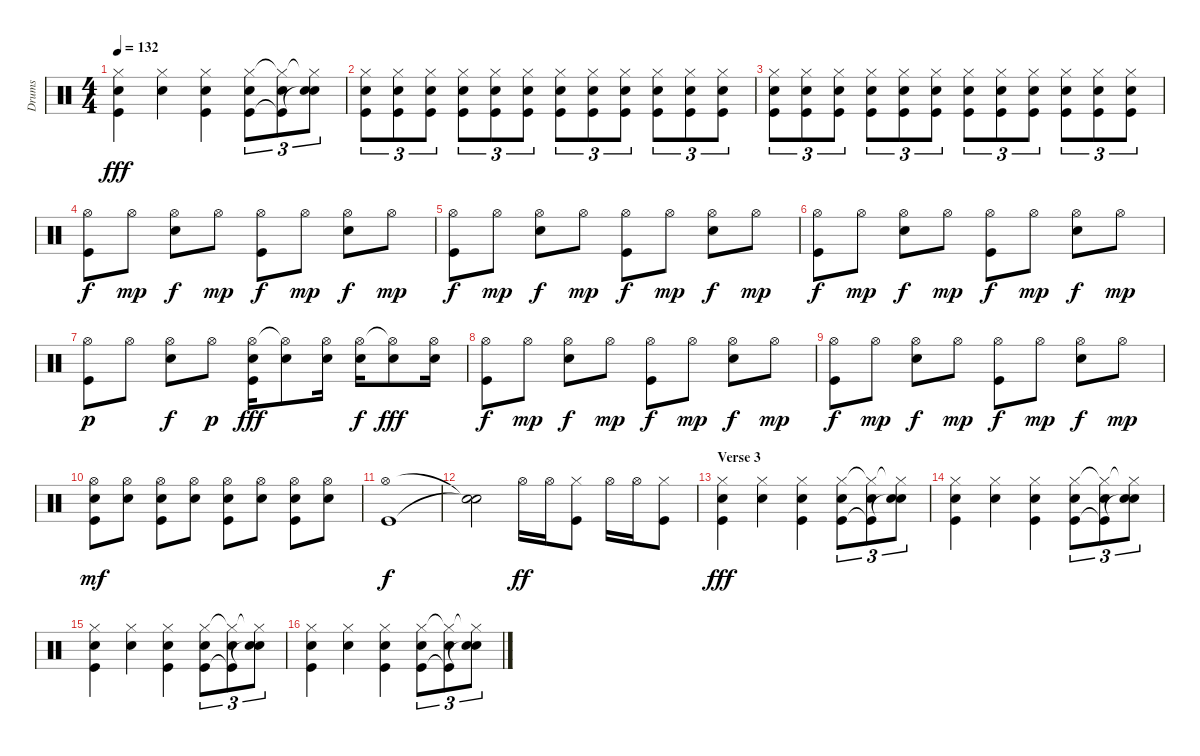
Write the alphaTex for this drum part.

\track ("Drums" "Drums") {instrument percussion}
\staff {score}
\articulation defaults
\ts (4 4)
\tempo 132
\clef neutral
\ks c
("Hi-Hat (closed)" "Snare (hit) 2" "Kick (hit)").4{dy fff} ("Hi-Hat (closed)" "Snare (hit) 2").4 ("Hi-Hat (closed)" "Snare (hit) 2" "Kick (hit)").4 ("Hi-Hat (closed)" "Snare (hit) 2" "Kick (hit)").8{tu (3 2)} ("Hi-Hat (closed)"{t} "Snare (hit) 2" "Kick (hit)"{t}).8{tu (3 2)} ("Hi-Hat (closed)"{t} "Snare (hit) 2" "Snare (hit)"{t}).8{tu (3 2)} |
("Hi-Hat (closed)" "Snare (hit) 2" "Kick (hit)").8{tu (3 2)} ("Hi-Hat (closed)" "Snare (hit) 2" "Kick (hit)").8{tu (3 2)} ("Hi-Hat (closed)" "Snare (hit) 2" "Kick (hit)").8{tu (3 2)} ("Hi-Hat (closed)" "Snare (hit) 2" "Kick (hit)").8{tu (3 2)} ("Hi-Hat (closed)" "Snare (hit) 2" "Kick (hit)").8{tu (3 2)} ("Hi-Hat (closed)" "Snare (hit) 2" "Kick (hit)").8{tu (3 2)} ("Hi-Hat (closed)" "Snare (hit) 2" "Kick (hit)").8{tu (3 2)} ("Hi-Hat (closed)" "Snare (hit) 2" "Kick (hit)").8{tu (3 2)} ("Hi-Hat (closed)" "Snare (hit) 2" "Kick (hit)").8{tu (3 2)} ("Hi-Hat (closed)" "Snare (hit) 2" "Kick (hit)").8{tu (3 2)} ("Hi-Hat (closed)" "Snare (hit) 2" "Kick (hit)").8{tu (3 2)} ("Hi-Hat (closed)" "Snare (hit) 2" "Kick (hit)").8{tu (3 2)} |
("Hi-Hat (closed)" "Snare (hit) 2" "Kick (hit)").8{tu (3 2)} ("Hi-Hat (closed)" "Snare (hit) 2" "Kick (hit)").8{tu (3 2)} ("Hi-Hat (closed)" "Snare (hit) 2" "Kick (hit)").8{tu (3 2)} ("Hi-Hat (closed)" "Snare (hit) 2" "Kick (hit)").8{tu (3 2)} ("Hi-Hat (closed)" "Snare (hit) 2" "Kick (hit)").8{tu (3 2)} ("Hi-Hat (closed)" "Snare (hit) 2" "Kick (hit)").8{tu (3 2)} ("Hi-Hat (closed)" "Snare (hit) 2" "Kick (hit)").8{tu (3 2)} ("Hi-Hat (closed)" "Snare (hit) 2" "Kick (hit)").8{tu (3 2)} ("Hi-Hat (closed)" "Snare (hit) 2" "Kick (hit)").8{tu (3 2)} ("Hi-Hat (closed)" "Snare (hit) 2" "Kick (hit)").8{tu (3 2)} ("Hi-Hat (closed)" "Snare (hit) 2" "Kick (hit)").8{tu (3 2)} ("Hi-Hat (closed)" "Snare (hit) 2" "Kick (hit)").8{tu (3 2)} |
("Hi-Hat (open)" "Kick (hit)").8{dy f} "Hi-Hat (open)".8{dy mp} ("Hi-Hat (open)" "Snare (hit) 2").8{dy f} "Hi-Hat (open)".8{dy mp} ("Hi-Hat (open)" "Kick (hit)").8{dy f} "Hi-Hat (open)".8{dy mp} ("Hi-Hat (open)" "Snare (hit) 2").8{dy f} "Hi-Hat (open)".8{dy mp} |
("Hi-Hat (open)" "Kick (hit)").8{dy f} "Hi-Hat (open)".8{dy mp} ("Hi-Hat (open)" "Snare (hit) 2").8{dy f} "Hi-Hat (open)".8{dy mp} ("Hi-Hat (open)" "Kick (hit)").8{dy f} "Hi-Hat (open)".8{dy mp} ("Hi-Hat (open)" "Snare (hit) 2").8{dy f} "Hi-Hat (open)".8{dy mp} |
("Hi-Hat (open)" "Kick (hit)").8{dy f} "Hi-Hat (open)".8{dy mp} ("Hi-Hat (open)" "Snare (hit) 2").8{dy f} "Hi-Hat (open)".8{dy mp} ("Hi-Hat (open)" "Kick (hit)").8{dy f} "Hi-Hat (open)".8{dy mp} ("Hi-Hat (open)" "Snare (hit) 2").8{dy f} "Hi-Hat (open)".8{dy mp} |
("Hi-Hat (open)" "Kick (hit)").8{dy p} "Hi-Hat (open)".8 ("Hi-Hat (open)" "Snare (hit) 2").8{dy f} "Hi-Hat (open)".8{dy p} ("Hi-Hat (open)" "Snare (hit) 2" "Kick (hit)").16{dy fff} ("Hi-Hat (open)"{t} "Snare (hit) 2").8 ("Hi-Hat (open)" "Snare (hit) 2").16 ("Hi-Hat (open)" "Snare (hit) 2").16{dy f} ("Hi-Hat (open)"{t} "Snare (hit) 2").8{dy fff} ("Hi-Hat (open)" "Snare (hit) 2").16 |
("Hi-Hat (open)" "Kick (hit)").8{dy f} "Hi-Hat (open)".8{dy mp} ("Hi-Hat (open)" "Snare (hit) 2").8{dy f} "Hi-Hat (open)".8{dy mp} ("Hi-Hat (open)" "Kick (hit)").8{dy f} "Hi-Hat (open)".8{dy mp} ("Hi-Hat (open)" "Snare (hit) 2").8{dy f} "Hi-Hat (open)".8{dy mp} |
("Hi-Hat (open)" "Kick (hit)").8{dy f} "Hi-Hat (open)".8{dy mp} ("Hi-Hat (open)" "Snare (hit) 2").8{dy f} "Hi-Hat (open)".8{dy mp} ("Hi-Hat (open)" "Kick (hit)").8{dy f} "Hi-Hat (open)".8{dy mp} ("Hi-Hat (open)" "Snare (hit) 2").8{dy f} "Hi-Hat (open)".8{dy mp} |
("Hi-Hat (open)" "Snare (hit) 2" "Kick (hit)").8{dy mf} ("Hi-Hat (open)" "Snare (hit) 2").8 ("Hi-Hat (open)" "Snare (hit) 2" "Kick (hit)").8 ("Hi-Hat (open)" "Snare (hit) 2").8 ("Hi-Hat (open)" "Snare (hit) 2" "Kick (hit)").8 ("Hi-Hat (open)" "Snare (hit) 2").8 ("Hi-Hat (open)" "Snare (hit) 2" "Kick (hit)").8 ("Hi-Hat (open)" "Snare (hit) 2").8 |
("Hi-Hat (open)" "Kick (hit)").1{dy f} |
("Snare (hit)"{t} "Snare (hit)"{t}).2 "Hi-Hat (open)".16{dy ff} "Hi-Hat (open)".16 ("Hi-Hat (closed)" "Kick (hit)").8 "Hi-Hat (open)".16 "Hi-Hat (open)".16 ("Hi-Hat (closed)" "Kick (hit)").8 |
\section ("" "Verse 3")
("Hi-Hat (closed)" "Snare (hit) 2" "Kick (hit)").4{dy fff} ("Hi-Hat (closed)" "Snare (hit) 2").4 ("Hi-Hat (closed)" "Snare (hit) 2" "Kick (hit)").4 ("Hi-Hat (closed)" "Snare (hit) 2" "Kick (hit)").8{tu (3 2)} ("Hi-Hat (closed)"{t} "Snare (hit) 2" "Kick (hit)"{t}).8{tu (3 2)} ("Hi-Hat (closed)"{t} "Snare (hit) 2" "Snare (hit)"{t}).8{tu (3 2)} |
("Hi-Hat (closed)" "Snare (hit) 2" "Kick (hit)").4 ("Hi-Hat (closed)" "Snare (hit) 2").4 ("Hi-Hat (closed)" "Snare (hit) 2" "Kick (hit)").4 ("Hi-Hat (closed)" "Snare (hit) 2" "Kick (hit)").8{tu (3 2)} ("Hi-Hat (closed)"{t} "Snare (hit) 2" "Kick (hit)"{t}).8{tu (3 2)} ("Hi-Hat (closed)"{t} "Snare (hit) 2" "Snare (hit)"{t}).8{tu (3 2)} |
("Hi-Hat (closed)" "Snare (hit) 2" "Kick (hit)").4 ("Hi-Hat (closed)" "Snare (hit) 2").4 ("Hi-Hat (closed)" "Snare (hit) 2" "Kick (hit)").4 ("Hi-Hat (closed)" "Snare (hit) 2" "Kick (hit)").8{tu (3 2)} ("Hi-Hat (closed)"{t} "Snare (hit) 2" "Kick (hit)"{t}).8{tu (3 2)} ("Hi-Hat (closed)"{t} "Snare (hit) 2" "Snare (hit)"{t}).8{tu (3 2)} |
("Hi-Hat (closed)" "Snare (hit) 2" "Kick (hit)").4 ("Hi-Hat (closed)" "Snare (hit) 2").4 ("Hi-Hat (closed)" "Snare (hit) 2" "Kick (hit)").4 ("Hi-Hat (closed)" "Snare (hit) 2" "Kick (hit)").8{tu (3 2)} ("Hi-Hat (closed)"{t} "Snare (hit) 2" "Kick (hit)"{t}).8{tu (3 2)} ("Hi-Hat (closed)"{t} "Snare (hit) 2" "Snare (hit)"{t}).8{tu (3 2)}
